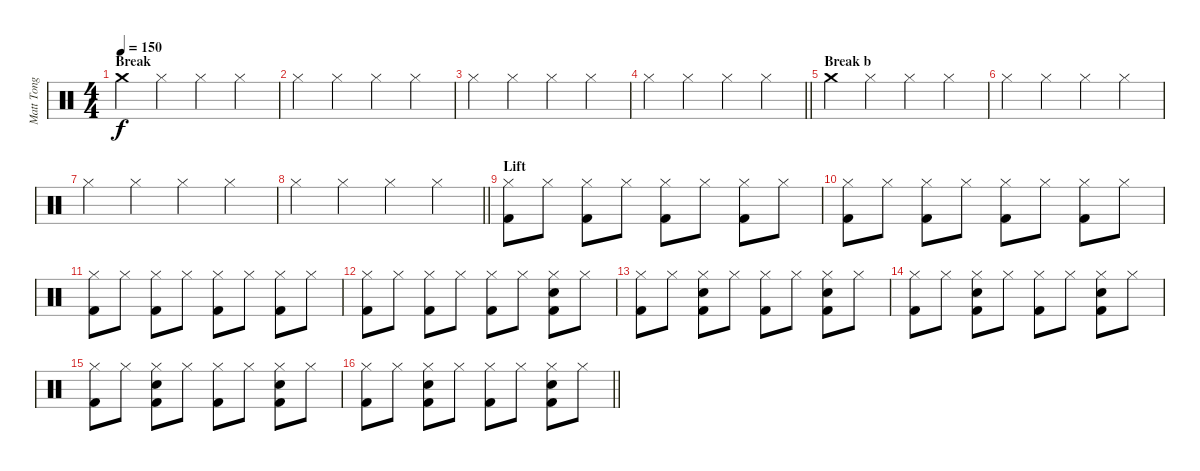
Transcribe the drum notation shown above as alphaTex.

\track ("Matt Tong" "Matt Tong") {instrument percussion}
\staff {score}
\articulation defaults
\ts (4 4)
\section ("" "Break")
\tempo 150
\clef neutral
\ks c "Crash medium (hit)".4{dy f} "Hi-Hat (closed)".4 "Hi-Hat (closed)".4 "Hi-Hat (closed)".4
|
"Hi-Hat (closed)".4 "Hi-Hat (closed)".4 "Hi-Hat (closed)".4 "Hi-Hat (closed)".4 |
"Hi-Hat (closed)".4 "Hi-Hat (closed)".4 "Hi-Hat (closed)".4 "Hi-Hat (closed)".4 |
\barLineRight lightlight "Hi-Hat (closed)".4 "Hi-Hat (closed)".4 "Hi-Hat (closed)".4 "Hi-Hat (closed)".4
|
\section ("" "Break b")
"Crash medium (hit)".4 "Hi-Hat (closed)".4 "Hi-Hat (closed)".4 "Hi-Hat (closed)".4 |
"Hi-Hat (closed)".4 "Hi-Hat (closed)".4 "Hi-Hat (closed)".4 "Hi-Hat (closed)".4 |
"Hi-Hat (closed)".4 "Hi-Hat (closed)".4 "Hi-Hat (closed)".4 "Hi-Hat (closed)".4 |
\barLineRight lightlight "Hi-Hat (closed)".4 "Hi-Hat (closed)".4 "Hi-Hat (closed)".4 "Hi-Hat (closed)".4
|
\section ("" "Lift")
("Hi-Hat (closed)" "Kick (hit) 2").8 "Hi-Hat (closed)".8 ("Hi-Hat (closed)" "Kick (hit) 2").8 "Hi-Hat (closed)".8 ("Hi-Hat (closed)" "Kick (hit) 2").8 "Hi-Hat (closed)".8 ("Hi-Hat (closed)" "Kick (hit) 2").8 "Hi-Hat (closed)".8 |
("Hi-Hat (closed)" "Kick (hit) 2").8 "Hi-Hat (closed)".8 ("Hi-Hat (closed)" "Kick (hit) 2").8 "Hi-Hat (closed)".8 ("Hi-Hat (closed)" "Kick (hit) 2").8 "Hi-Hat (closed)".8 ("Hi-Hat (closed)" "Kick (hit) 2").8 "Hi-Hat (closed)".8 |
("Hi-Hat (closed)" "Kick (hit) 2").8 "Hi-Hat (closed)".8 ("Hi-Hat (closed)" "Kick (hit) 2").8 "Hi-Hat (closed)".8 ("Hi-Hat (closed)" "Kick (hit) 2").8 "Hi-Hat (closed)".8 ("Hi-Hat (closed)" "Kick (hit) 2").8 "Hi-Hat (closed)".8 |
("Hi-Hat (closed)" "Kick (hit) 2").8 "Hi-Hat (closed)".8 ("Hi-Hat (closed)" "Kick (hit) 2").8 "Hi-Hat (closed)".8 ("Hi-Hat (closed)" "Kick (hit) 2").8 "Hi-Hat (closed)".8 ("Hi-Hat (closed)" "Electric Snare (hit)" "Kick (hit) 2").8 "Hi-Hat (closed)".8 |
("Hi-Hat (closed)" "Kick (hit) 2").8 "Hi-Hat (closed)".8 ("Hi-Hat (closed)" "Electric Snare (hit)" "Kick (hit) 2").8 "Hi-Hat (closed)".8 ("Hi-Hat (closed)" "Kick (hit) 2").8 "Hi-Hat (closed)".8 ("Hi-Hat (closed)" "Electric Snare (hit)" "Kick (hit) 2").8 "Hi-Hat (closed)".8 |
("Hi-Hat (closed)" "Kick (hit) 2").8 "Hi-Hat (closed)".8 ("Hi-Hat (closed)" "Electric Snare (hit)" "Kick (hit) 2").8 "Hi-Hat (closed)".8 ("Hi-Hat (closed)" "Kick (hit) 2").8 "Hi-Hat (closed)".8 ("Hi-Hat (closed)" "Electric Snare (hit)" "Kick (hit) 2").8 "Hi-Hat (closed)".8 |
("Hi-Hat (closed)" "Kick (hit) 2").8 "Hi-Hat (closed)".8 ("Hi-Hat (closed)" "Electric Snare (hit)" "Kick (hit) 2").8 "Hi-Hat (closed)".8 ("Hi-Hat (closed)" "Kick (hit) 2").8 "Hi-Hat (closed)".8 ("Hi-Hat (closed)" "Electric Snare (hit)" "Kick (hit) 2").8 "Hi-Hat (closed)".8 |
\barLineRight lightlight
("Hi-Hat (closed)" "Kick (hit) 2").8 "Hi-Hat (closed)".8 ("Hi-Hat (closed)" "Electric Snare (hit)" "Kick (hit) 2").8 "Hi-Hat (closed)".8 ("Hi-Hat (closed)" "Kick (hit) 2").8 "Hi-Hat (closed)".8 ("Hi-Hat (closed)" "Electric Snare (hit)" "Kick (hit) 2").8 "Hi-Hat (closed)".8
